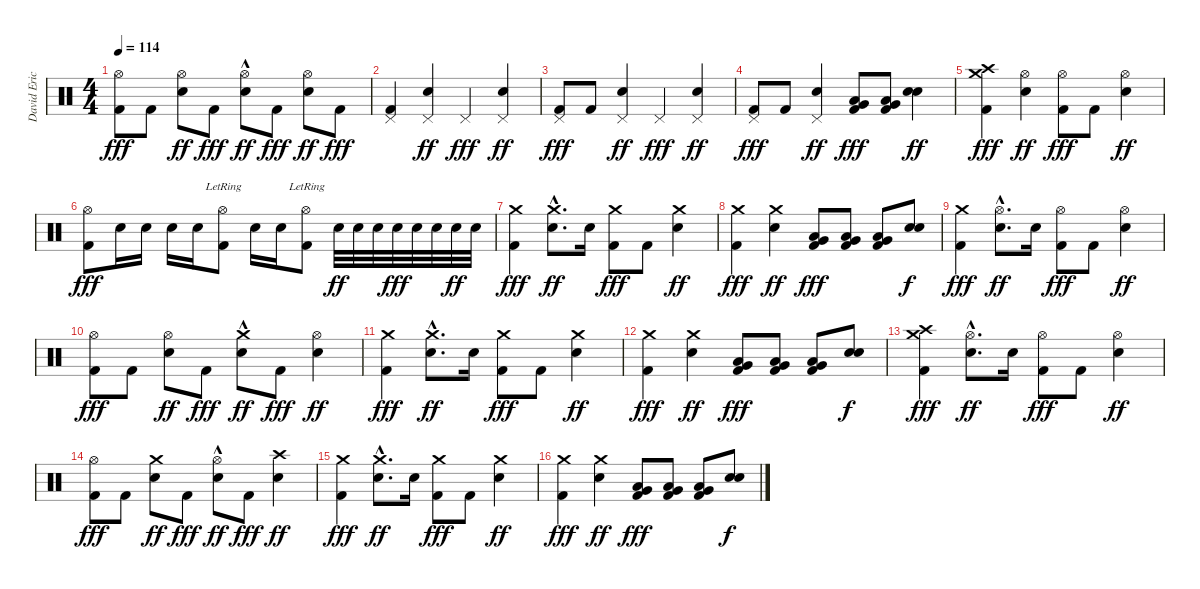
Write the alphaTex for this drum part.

\track ("David Eric Grohl" "David Eric") {instrument percussion}
\staff {score}
\articulation defaults
\ts (4 4)
\tempo 114
\clef neutral
\ks c
("Hi-Hat (open)" "Kick (hit) 2").8{dy fff} "Kick (hit) 2".8 ("Hi-Hat (open)" "Electric Snare (hit)").8{dy ff} "Kick (hit) 2".8{dy fff} ("Hi-Hat (open)"{hac} "Electric Snare (hit)").8{dy ff} "Kick (hit) 2".8{dy fff} ("Hi-Hat (open)" "Electric Snare (hit)").8{dy ff} "Kick (hit) 2".8{dy fff} |
("Pedal Hi-Hat (hit)" "Kick (hit) 2").4 ("Pedal Hi-Hat (hit)" "Electric Snare (hit)").4{dy ff} "Pedal Hi-Hat (hit)".4{dy fff} ("Pedal Hi-Hat (hit)" "Electric Snare (hit)").4{dy ff} |
("Pedal Hi-Hat (hit)" "Kick (hit) 2").8{dy fff} "Kick (hit) 2".8 ("Pedal Hi-Hat (hit)" "Electric Snare (hit)").4{dy ff} "Pedal Hi-Hat (hit)".4{dy fff} ("Pedal Hi-Hat (hit)" "Electric Snare (hit)").4{dy ff} |
("Pedal Hi-Hat (hit)" "Kick (hit) 2").8{dy fff} "Kick (hit) 2".8 ("Pedal Hi-Hat (hit)" "Electric Snare (hit)").4{dy ff} ("Low Tom (hit)" "Very Low Tom (hit)" "Kick (hit) 2").8{dy fff} ("Low Tom (hit)" "Very Low Tom (hit)" "Kick (hit) 2").8 ("Electric Snare (hit)" "Electric Snare (hit)").4{dy ff} |
("Crash medium (hit)" "Crash high (hit)" "Kick (hit) 2").4{dy fff} ("Hi-Hat (open)" "Electric Snare (hit)").4{dy ff} ("Hi-Hat (open)" "Kick (hit) 2").8{dy fff} "Kick (hit) 2".8 ("Hi-Hat (open)" "Electric Snare (hit)").4{dy ff} |
("Hi-Hat (open)" "Kick (hit) 2").8{dy fff} "Electric Snare (hit)".16 "Electric Snare (hit)".16 "Electric Snare (hit)".16 "Electric Snare (hit)".16 ("Hi-Hat (open)"{lr} "Kick (hit) 2").8 "Electric Snare (hit)".16 "Electric Snare (hit)".16 ("Hi-Hat (open)"{lr} "Kick (hit) 2").8 "Electric Snare (hit)".32{dy ff} "Electric Snare (hit)".32 "Electric Snare (hit)".32 "Electric Snare (hit)".32{dy fff} "Electric Snare (hit)".32 "Electric Snare (hit)".32 "Electric Snare (hit)".32{dy ff} "Electric Snare (hit)".32 |
("Crash medium (hit)" "Kick (hit) 2").4{dy fff} ("Crash medium (hit)"{hac} "Electric Snare (hit)"{hac}).8{d dy ff} "Electric Snare (hit)".16 ("Crash medium (hit)" "Kick (hit) 2").8{dy fff} "Kick (hit) 2".8 ("Crash medium (hit)" "Electric Snare (hit)").4{dy ff} |
("Crash medium (hit)" "Kick (hit) 2").4{dy fff} ("Crash medium (hit)" "Electric Snare (hit)").4{dy ff} ("Low Tom (hit)" "Very Low Tom (hit)" "Kick (hit) 2").8{dy fff} ("Low Tom (hit)" "Very Low Tom (hit)" "Kick (hit) 2").8 ("Low Tom (hit)" "Very Low Tom (hit)" "Kick (hit) 2").8 ("Electric Snare (hit)" "Electric Snare (hit)").8{dy f} |
("Crash medium (hit)" "Kick (hit) 2").4{dy fff} ("Hi-Hat (open)"{hac} "Electric Snare (hit)"{hac}).8{d dy ff} "Electric Snare (hit)".16 ("Hi-Hat (open)" "Kick (hit) 2").8{dy fff} "Kick (hit) 2".8 ("Hi-Hat (open)" "Electric Snare (hit)").4{dy ff} |
("Hi-Hat (open)" "Kick (hit) 2").8{dy fff} "Kick (hit) 2".8 ("Hi-Hat (open)" "Electric Snare (hit)").8{dy ff} "Kick (hit) 2".8{dy fff} ("Crash medium (hit)"{hac} "Electric Snare (hit)").8{dy ff} "Kick (hit) 2".8{dy fff} ("Hi-Hat (open)" "Electric Snare (hit)").4{dy ff} |
("Crash medium (hit)" "Kick (hit) 2").4{dy fff} ("Crash medium (hit)"{hac} "Electric Snare (hit)"{hac}).8{d dy ff} "Electric Snare (hit)".16 ("Crash medium (hit)" "Kick (hit) 2").8{dy fff} "Kick (hit) 2".8 ("Crash medium (hit)" "Electric Snare (hit)").4{dy ff} |
("Crash medium (hit)" "Kick (hit) 2").4{dy fff} ("Crash medium (hit)" "Electric Snare (hit)").4{dy ff} ("Low Tom (hit)" "Very Low Tom (hit)" "Kick (hit) 2").8{dy fff} ("Low Tom (hit)" "Very Low Tom (hit)" "Kick (hit) 2").8 ("Low Tom (hit)" "Very Low Tom (hit)" "Kick (hit) 2").8 ("Electric Snare (hit)" "Electric Snare (hit)").8{dy f} |
("Crash medium (hit)" "Crash high (hit)" "Kick (hit) 2").4{dy fff} ("Hi-Hat (open)"{hac} "Electric Snare (hit)"{hac}).8{d dy ff} "Electric Snare (hit)".16 ("Hi-Hat (open)" "Kick (hit) 2").8{dy fff} "Kick (hit) 2".8 ("Hi-Hat (open)" "Electric Snare (hit)").4{dy ff} |
("Hi-Hat (open)" "Kick (hit) 2").8{dy fff} "Kick (hit) 2".8 ("Crash medium (hit)" "Electric Snare (hit)").8{dy ff} "Kick (hit) 2".8{dy fff} ("Hi-Hat (open)"{hac} "Electric Snare (hit)").8{dy ff} "Kick (hit) 2".8{dy fff} ("Crash high (hit)" "Electric Snare (hit)").4{dy ff} |
("Crash medium (hit)" "Kick (hit) 2").4{dy fff} ("Crash medium (hit)"{hac} "Electric Snare (hit)"{hac}).8{d dy ff} "Electric Snare (hit)".16 ("Crash medium (hit)" "Kick (hit) 2").8{dy fff} "Kick (hit) 2".8 ("Crash medium (hit)" "Electric Snare (hit)").4{dy ff} |
("Crash medium (hit)" "Kick (hit) 2").4{dy fff} ("Crash medium (hit)" "Electric Snare (hit)").4{dy ff} ("Low Tom (hit)" "Very Low Tom (hit)" "Kick (hit) 2").8{dy fff} ("Low Tom (hit)" "Very Low Tom (hit)" "Kick (hit) 2").8 ("Low Tom (hit)" "Very Low Tom (hit)" "Kick (hit) 2").8 ("Electric Snare (hit)" "Electric Snare (hit)").8{dy f}
